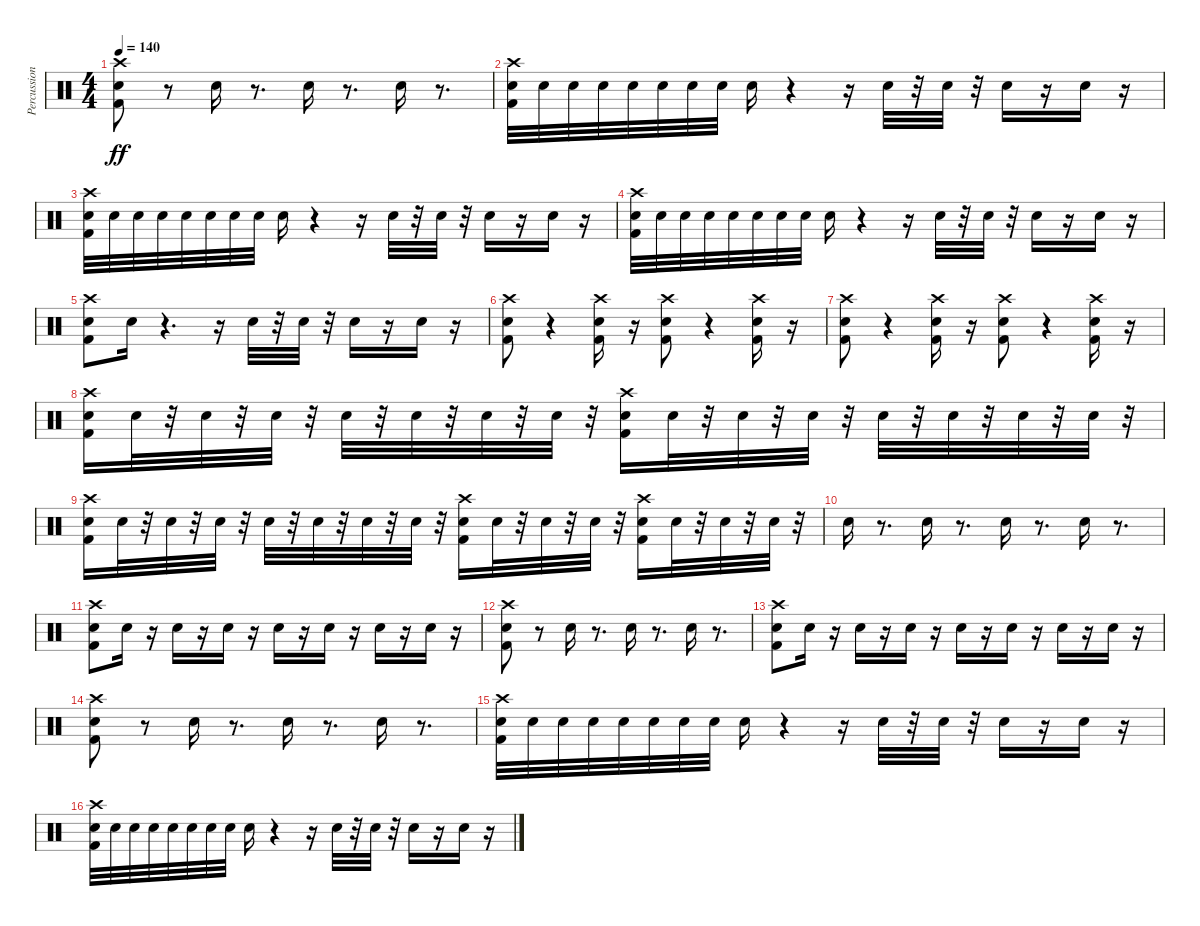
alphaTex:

\track ("Percussion" "Percussion") {instrument percussion}
\staff {score}
\articulation defaults
\ts (4 4)
\tempo 140
\clef neutral
\ks c
("Crash high (hit)" "Kick (hit) 2" "Snare (hit) 2").8{dy ff} r.8 "Snare (hit) 2".16 r.8{d} "Snare (hit) 2".16 r.8{d} "Snare (hit) 2".16 r.8{d} |
("Crash high (hit)" "Kick (hit) 2" "Snare (hit) 2").32 "Snare (hit) 2".32 "Snare (hit) 2".32 "Snare (hit) 2".32 "Snare (hit) 2".32 "Snare (hit) 2".32 "Snare (hit) 2".32 "Snare (hit) 2".32 "Snare (hit) 2".16 r.4 r.16 "Snare (hit) 2".32 r.32 "Snare (hit) 2".32 r.32 "Snare (hit) 2".16 r.16 "Snare (hit) 2".16 r.16 |
("Crash high (hit)" "Kick (hit) 2" "Snare (hit) 2").32 "Snare (hit) 2".32 "Snare (hit) 2".32 "Snare (hit) 2".32 "Snare (hit) 2".32 "Snare (hit) 2".32 "Snare (hit) 2".32 "Snare (hit) 2".32 "Snare (hit) 2".16 r.4 r.16 "Snare (hit) 2".32 r.32 "Snare (hit) 2".32 r.32 "Snare (hit) 2".16 r.16 "Snare (hit) 2".16 r.16 |
("Crash high (hit)" "Kick (hit) 2" "Snare (hit) 2").32 "Snare (hit) 2".32 "Snare (hit) 2".32 "Snare (hit) 2".32 "Snare (hit) 2".32 "Snare (hit) 2".32 "Snare (hit) 2".32 "Snare (hit) 2".32 "Snare (hit) 2".16 r.4 r.16 "Snare (hit) 2".32 r.32 "Snare (hit) 2".32 r.32 "Snare (hit) 2".16 r.16 "Snare (hit) 2".16 r.16 |
("Kick (hit) 2" "Crash high (hit)" "Snare (hit) 2").8 "Snare (hit) 2".16 r.4{d} r.16 "Snare (hit) 2".32 r.32 "Snare (hit) 2".32 r.32 "Snare (hit) 2".16 r.16 "Snare (hit) 2".16 r.16 |
("Crash high (hit)" "Kick (hit) 2" "Snare (hit) 2").8 r.4 ("Kick (hit) 2" "Crash high (hit)" "Snare (hit) 2").16 r.16 ("Kick (hit) 2" "Crash high (hit)" "Snare (hit) 2").8 r.4 ("Crash high (hit)" "Kick (hit) 2" "Snare (hit) 2").16 r.16 |
("Crash high (hit)" "Kick (hit) 2" "Snare (hit) 2").8 r.4 ("Kick (hit) 2" "Crash high (hit)" "Snare (hit) 2").16 r.16 ("Kick (hit) 2" "Crash high (hit)" "Snare (hit) 2").8 r.4 ("Crash high (hit)" "Kick (hit) 2" "Snare (hit) 2").16 r.16 |
("Crash high (hit)" "Kick (hit) 2" "Snare (hit) 2").16 "Snare (hit) 2".32 r.32 "Snare (hit) 2".32 r.32 "Snare (hit) 2".32 r.32 "Snare (hit) 2".32 r.32 "Snare (hit) 2".32 r.32 "Snare (hit) 2".32 r.32 "Snare (hit) 2".32 r.32 ("Crash high (hit)" "Kick (hit) 2" "Snare (hit) 2").16 "Snare (hit) 2".32 r.32 "Snare (hit) 2".32 r.32 "Snare (hit) 2".32 r.32 "Snare (hit) 2".32 r.32 "Snare (hit) 2".32 r.32 "Snare (hit) 2".32 r.32 "Snare (hit) 2".32 r.32 |
("Kick (hit) 2" "Crash high (hit)" "Snare (hit) 2").16 "Snare (hit) 2".32 r.32 "Snare (hit) 2".32 r.32 "Snare (hit) 2".32 r.32 "Snare (hit) 2".32 r.32 "Snare (hit) 2".32 r.32 "Snare (hit) 2".32 r.32 "Snare (hit) 2".32 r.32 ("Crash high (hit)" "Kick (hit) 2" "Snare (hit) 2").16 "Snare (hit) 2".32 r.32 "Snare (hit) 2".32 r.32 "Snare (hit) 2".32 r.32 ("Crash high (hit)" "Kick (hit) 2" "Snare (hit) 2").16 "Snare (hit) 2".32 r.32 "Snare (hit) 2".32 r.32 "Snare (hit) 2".32 r.32 |
"Snare (hit) 2".16 r.8{d} "Snare (hit) 2".16 r.8{d} "Snare (hit) 2".16 r.8{d} "Snare (hit) 2".16 r.8{d} |
("Crash high (hit)" "Kick (hit) 2" "Snare (hit) 2").8 "Snare (hit) 2".16 r.16 "Snare (hit) 2".16 r.16 "Snare (hit) 2".16 r.16 "Snare (hit) 2".16 r.16 "Snare (hit) 2".16 r.16 "Snare (hit) 2".16 r.16 "Snare (hit) 2".16 r.16 |
("Kick (hit) 2" "Crash high (hit)" "Snare (hit) 2").8 r.8 "Snare (hit) 2".16 r.8{d} "Snare (hit) 2".16 r.8{d} "Snare (hit) 2".16 r.8{d} |
("Kick (hit) 2" "Crash high (hit)" "Snare (hit) 2").8 "Snare (hit) 2".16 r.16 "Snare (hit) 2".16 r.16 "Snare (hit) 2".16 r.16 "Snare (hit) 2".16 r.16 "Snare (hit) 2".16 r.16 "Snare (hit) 2".16 r.16 "Snare (hit) 2".16 r.16 |
("Crash high (hit)" "Kick (hit) 2" "Snare (hit) 2").8 r.8 "Snare (hit) 2".16 r.8{d} "Snare (hit) 2".16 r.8{d} "Snare (hit) 2".16 r.8{d} |
("Crash high (hit)" "Kick (hit) 2" "Snare (hit) 2").32 "Snare (hit) 2".32 "Snare (hit) 2".32 "Snare (hit) 2".32 "Snare (hit) 2".32 "Snare (hit) 2".32 "Snare (hit) 2".32 "Snare (hit) 2".32 "Snare (hit) 2".16 r.4 r.16 "Snare (hit) 2".32 r.32 "Snare (hit) 2".32 r.32 "Snare (hit) 2".16 r.16 "Snare (hit) 2".16 r.16 |
("Crash high (hit)" "Kick (hit) 2" "Snare (hit) 2").32 "Snare (hit) 2".32 "Snare (hit) 2".32 "Snare (hit) 2".32 "Snare (hit) 2".32 "Snare (hit) 2".32 "Snare (hit) 2".32 "Snare (hit) 2".32 "Snare (hit) 2".16 r.4 r.16 "Snare (hit) 2".32 r.32 "Snare (hit) 2".32 r.32 "Snare (hit) 2".16 r.16 "Snare (hit) 2".16 r.16
